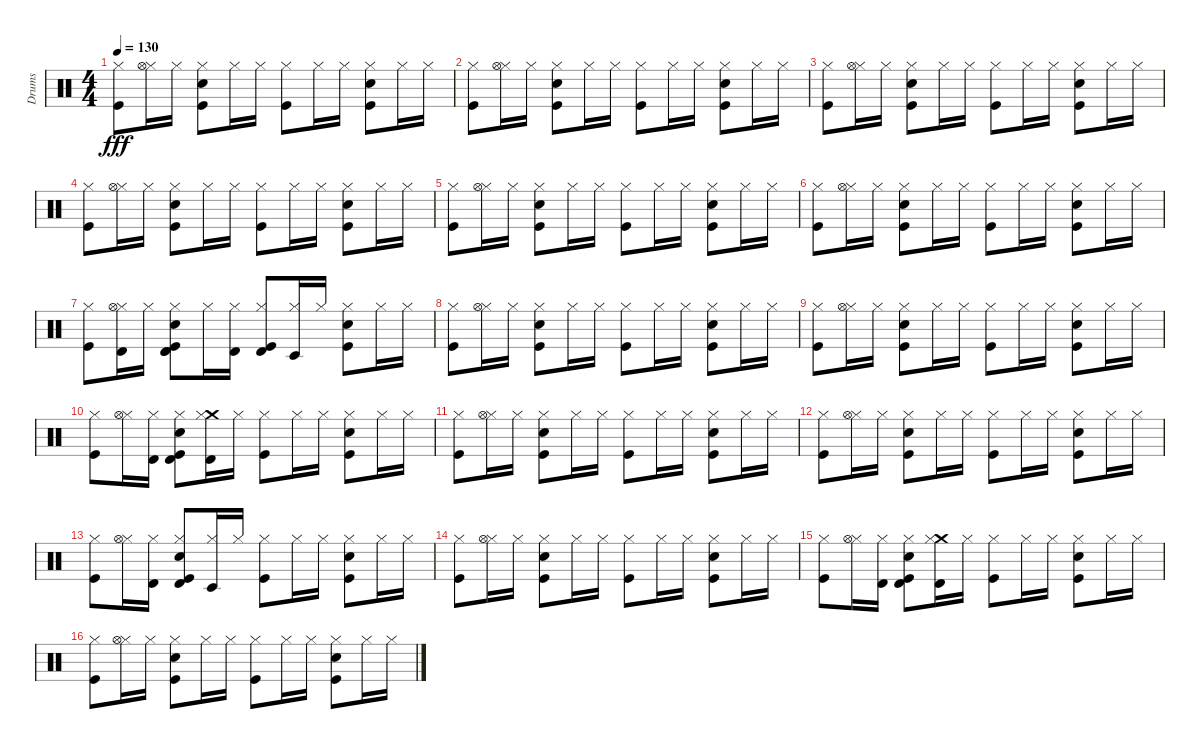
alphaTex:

\track ("Drums" "Drums") {instrument percussion}
\staff {score}
\articulation defaults
\ts (4 4)
\tempo 130
\clef neutral
\ks c
("Kick (hit)" "Hi-Hat (closed)").8{dy fff} ("Hi-Hat (closed)" "Hi-Hat (open)").16 "Hi-Hat (closed)".16 ("Kick (hit)" "Electric Snare (hit)" "Hi-Hat (closed)").8 "Hi-Hat (closed)".16 "Hi-Hat (closed)".16 ("Kick (hit)" "Hi-Hat (closed)").8 "Hi-Hat (closed)".16 "Hi-Hat (closed)".16 ("Kick (hit)" "Electric Snare (hit)" "Hi-Hat (closed)").8 "Hi-Hat (closed)".16 "Hi-Hat (closed)".16 |
("Kick (hit)" "Hi-Hat (closed)").8 ("Hi-Hat (closed)" "Hi-Hat (open)").16 "Hi-Hat (closed)".16 ("Kick (hit)" "Electric Snare (hit)" "Hi-Hat (closed)").8 "Hi-Hat (closed)".16 "Hi-Hat (closed)".16 ("Kick (hit)" "Hi-Hat (closed)").8 "Hi-Hat (closed)".16 "Hi-Hat (closed)".16 ("Kick (hit)" "Electric Snare (hit)" "Hi-Hat (closed)").8 "Hi-Hat (closed)".16 "Hi-Hat (closed)".16 |
("Kick (hit)" "Hi-Hat (closed)").8 ("Hi-Hat (closed)" "Hi-Hat (open)").16 "Hi-Hat (closed)".16 ("Kick (hit)" "Electric Snare (hit)" "Hi-Hat (closed)").8 "Hi-Hat (closed)".16 "Hi-Hat (closed)".16 ("Kick (hit)" "Hi-Hat (closed)").8 "Hi-Hat (closed)".16 "Hi-Hat (closed)".16 ("Kick (hit)" "Electric Snare (hit)" "Hi-Hat (closed)").8 "Hi-Hat (closed)".16 "Hi-Hat (closed)".16 |
("Kick (hit)" "Hi-Hat (closed)").8 ("Hi-Hat (closed)" "Hi-Hat (open)").16 "Hi-Hat (closed)".16 ("Kick (hit)" "Electric Snare (hit)" "Hi-Hat (closed)").8 "Hi-Hat (closed)".16 "Hi-Hat (closed)".16 ("Kick (hit)" "Hi-Hat (closed)").8 "Hi-Hat (closed)".16 "Hi-Hat (closed)".16 ("Kick (hit)" "Electric Snare (hit)" "Hi-Hat (closed)").8 "Hi-Hat (closed)".16 "Hi-Hat (closed)".16 |
("Kick (hit)" "Hi-Hat (closed)").8 ("Hi-Hat (closed)" "Hi-Hat (open)").16 "Hi-Hat (closed)".16 ("Kick (hit)" "Electric Snare (hit)" "Hi-Hat (closed)").8 "Hi-Hat (closed)".16 "Hi-Hat (closed)".16 ("Kick (hit)" "Hi-Hat (closed)").8 "Hi-Hat (closed)".16 "Hi-Hat (closed)".16 ("Kick (hit)" "Electric Snare (hit)" "Hi-Hat (closed)").8 "Hi-Hat (closed)".16 "Hi-Hat (closed)".16 |
("Kick (hit)" "Hi-Hat (closed)").8 ("Hi-Hat (closed)" "Hi-Hat (open)").16 "Hi-Hat (closed)".16 ("Kick (hit)" "Electric Snare (hit)" "Hi-Hat (closed)").8 "Hi-Hat (closed)".16 "Hi-Hat (closed)".16 ("Kick (hit)" "Hi-Hat (closed)").8 "Hi-Hat (closed)".16 "Hi-Hat (closed)".16 ("Kick (hit)" "Electric Snare (hit)" "Hi-Hat (closed)").8 "Hi-Hat (closed)".16 "Hi-Hat (closed)".16 |
("Kick (hit)" "Hi-Hat (closed)").8 ("Hi-Hat (closed)" "Hi-Hat (open)" "Timbale high (hit)").16 "Hi-Hat (closed)".16 ("Kick (hit)" "Electric Snare (hit)" "Hi-Hat (closed)" "Timbale high (hit)" "Timbale high (hit)").8 "Hi-Hat (closed)".16 ("Hi-Hat (closed)" "Timbale high (hit)").16 ("Kick (hit)" "Hi-Hat (closed)" "Timbale high (hit)").8 ("Hi-Hat (closed)" "Timbale low (hit)").16 "Hi-Hat (closed)".16 ("Kick (hit)" "Electric Snare (hit)" "Hi-Hat (closed)").8 "Hi-Hat (closed)".16 "Hi-Hat (closed)".16 |
("Kick (hit)" "Hi-Hat (closed)").8 ("Hi-Hat (closed)" "Hi-Hat (open)").16 "Hi-Hat (closed)".16 ("Kick (hit)" "Electric Snare (hit)" "Hi-Hat (closed)").8 "Hi-Hat (closed)".16 "Hi-Hat (closed)".16 ("Kick (hit)" "Hi-Hat (closed)").8 "Hi-Hat (closed)".16 "Hi-Hat (closed)".16 ("Kick (hit)" "Electric Snare (hit)" "Hi-Hat (closed)").8 "Hi-Hat (closed)".16 "Hi-Hat (closed)".16 |
("Kick (hit)" "Hi-Hat (closed)").8 ("Hi-Hat (closed)" "Hi-Hat (open)").16 "Hi-Hat (closed)".16 ("Kick (hit)" "Electric Snare (hit)" "Hi-Hat (closed)").8 "Hi-Hat (closed)".16 "Hi-Hat (closed)".16 ("Kick (hit)" "Hi-Hat (closed)").8 "Hi-Hat (closed)".16 "Hi-Hat (closed)".16 ("Kick (hit)" "Electric Snare (hit)" "Hi-Hat (closed)").8 "Hi-Hat (closed)".16 "Hi-Hat (closed)".16 |
("Kick (hit)" "Hi-Hat (closed)").8 ("Hi-Hat (closed)" "Hi-Hat (open)").16 ("Hi-Hat (closed)" "Timbale high (hit)").16 ("Kick (hit)" "Electric Snare (hit)" "Hi-Hat (closed)" "Timbale high (hit)").8 ("Crash medium (hit)" "Hi-Hat (closed)" "Timbale high (hit)").16 "Hi-Hat (closed)".16 ("Kick (hit)" "Hi-Hat (closed)").8 "Hi-Hat (closed)".16 "Hi-Hat (closed)".16 ("Kick (hit)" "Electric Snare (hit)" "Hi-Hat (closed)").8 "Hi-Hat (closed)".16 "Hi-Hat (closed)".16 |
("Kick (hit)" "Hi-Hat (closed)").8 ("Hi-Hat (closed)" "Hi-Hat (open)").16 "Hi-Hat (closed)".16 ("Kick (hit)" "Electric Snare (hit)" "Hi-Hat (closed)").8 "Hi-Hat (closed)".16 "Hi-Hat (closed)".16 ("Kick (hit)" "Hi-Hat (closed)").8 "Hi-Hat (closed)".16 "Hi-Hat (closed)".16 ("Kick (hit)" "Electric Snare (hit)" "Hi-Hat (closed)").8 "Hi-Hat (closed)".16 "Hi-Hat (closed)".16 |
("Kick (hit)" "Hi-Hat (closed)").8 ("Hi-Hat (closed)" "Hi-Hat (open)").16 "Hi-Hat (closed)".16 ("Kick (hit)" "Electric Snare (hit)" "Hi-Hat (closed)").8 "Hi-Hat (closed)".16 "Hi-Hat (closed)".16 ("Kick (hit)" "Hi-Hat (closed)").8 "Hi-Hat (closed)".16 "Hi-Hat (closed)".16 ("Kick (hit)" "Electric Snare (hit)" "Hi-Hat (closed)").8 "Hi-Hat (closed)".16 "Hi-Hat (closed)".16 |
("Kick (hit)" "Hi-Hat (closed)").8 ("Hi-Hat (closed)" "Hi-Hat (open)").16 ("Hi-Hat (closed)" "Timbale high (hit)").16 ("Kick (hit)" "Electric Snare (hit)" "Hi-Hat (closed)" "Timbale high (hit)").8 ("Hi-Hat (closed)" "Timbale low (hit)").16 "Hi-Hat (closed)".16 ("Kick (hit)" "Hi-Hat (closed)").8 "Hi-Hat (closed)".16 "Hi-Hat (closed)".16 ("Kick (hit)" "Electric Snare (hit)" "Hi-Hat (closed)").8 "Hi-Hat (closed)".16 "Hi-Hat (closed)".16 |
("Kick (hit)" "Hi-Hat (closed)").8 ("Hi-Hat (closed)" "Hi-Hat (open)").16 "Hi-Hat (closed)".16 ("Kick (hit)" "Electric Snare (hit)" "Hi-Hat (closed)").8 "Hi-Hat (closed)".16 "Hi-Hat (closed)".16 ("Kick (hit)" "Hi-Hat (closed)").8 "Hi-Hat (closed)".16 "Hi-Hat (closed)".16 ("Kick (hit)" "Electric Snare (hit)" "Hi-Hat (closed)").8 "Hi-Hat (closed)".16 "Hi-Hat (closed)".16 |
("Kick (hit)" "Hi-Hat (closed)").8 ("Hi-Hat (closed)" "Hi-Hat (open)").16 ("Hi-Hat (closed)" "Timbale high (hit)").16 ("Kick (hit)" "Electric Snare (hit)" "Hi-Hat (closed)" "Timbale high (hit)").8 ("Crash medium (hit)" "Hi-Hat (closed)" "Timbale high (hit)").16 "Hi-Hat (closed)".16 ("Kick (hit)" "Hi-Hat (closed)").8 "Hi-Hat (closed)".16 "Hi-Hat (closed)".16 ("Kick (hit)" "Electric Snare (hit)" "Hi-Hat (closed)").8 "Hi-Hat (closed)".16 "Hi-Hat (closed)".16 |
("Kick (hit)" "Hi-Hat (closed)").8 ("Hi-Hat (closed)" "Hi-Hat (open)").16 "Hi-Hat (closed)".16 ("Kick (hit)" "Electric Snare (hit)" "Hi-Hat (closed)").8 "Hi-Hat (closed)".16 "Hi-Hat (closed)".16 ("Kick (hit)" "Hi-Hat (closed)").8 "Hi-Hat (closed)".16 "Hi-Hat (closed)".16 ("Kick (hit)" "Electric Snare (hit)" "Hi-Hat (closed)").8 "Hi-Hat (closed)".16 "Hi-Hat (closed)".16
